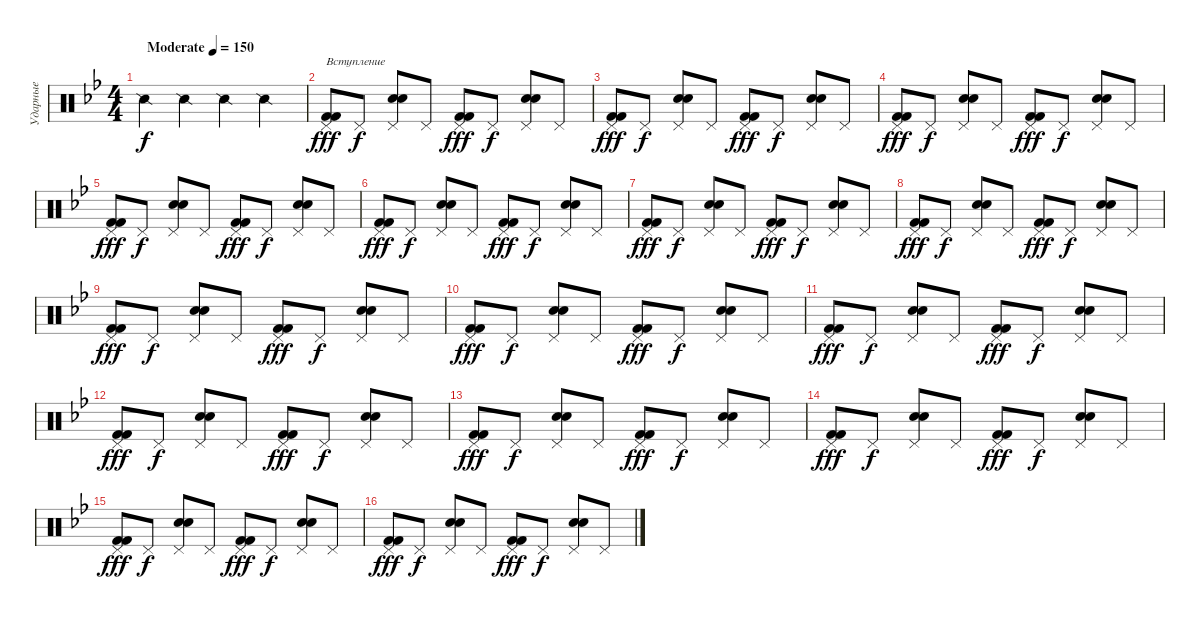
\track ("Ударные" "Ударные") {instrument percussion}
\staff {score}
\articulation defaults
\ts (4 4)
\tempo (150 "Moderate")
\clef neutral
\ks gminor "Snare (side stick) 2".4{dy f} "Snare (side stick) 2".4 "Snare (side stick) 2".4 "Snare (side stick) 2".4
|
("Kick (hit) 2" "Kick (hit) 2" "Pedal Hi-Hat (hit)").8{txt "Вступление" dy fff} "Pedal Hi-Hat (hit)".8{dy f} ("Electric Snare (hit)" "Electric Snare (hit)" "Pedal Hi-Hat (hit)").8 "Pedal Hi-Hat (hit)".8 ("Kick (hit) 2" "Kick (hit) 2" "Pedal Hi-Hat (hit)").8{dy fff} "Pedal Hi-Hat (hit)".8{dy f} ("Electric Snare (hit)" "Electric Snare (hit)" "Pedal Hi-Hat (hit)").8 "Pedal Hi-Hat (hit)".8 |
("Kick (hit) 2" "Kick (hit) 2" "Pedal Hi-Hat (hit)").8{dy fff} "Pedal Hi-Hat (hit)".8{dy f} ("Electric Snare (hit)" "Electric Snare (hit)" "Pedal Hi-Hat (hit)").8 "Pedal Hi-Hat (hit)".8 ("Kick (hit) 2" "Kick (hit) 2" "Pedal Hi-Hat (hit)").8{dy fff} "Pedal Hi-Hat (hit)".8{dy f} ("Electric Snare (hit)" "Electric Snare (hit)" "Pedal Hi-Hat (hit)").8 "Pedal Hi-Hat (hit)".8 |
("Kick (hit) 2" "Kick (hit) 2" "Pedal Hi-Hat (hit)").8{dy fff} "Pedal Hi-Hat (hit)".8{dy f} ("Electric Snare (hit)" "Electric Snare (hit)" "Pedal Hi-Hat (hit)").8 "Pedal Hi-Hat (hit)".8 ("Kick (hit) 2" "Kick (hit) 2" "Pedal Hi-Hat (hit)").8{dy fff} "Pedal Hi-Hat (hit)".8{dy f} ("Electric Snare (hit)" "Electric Snare (hit)" "Pedal Hi-Hat (hit)").8 "Pedal Hi-Hat (hit)".8 |
("Kick (hit) 2" "Kick (hit) 2" "Pedal Hi-Hat (hit)").8{dy fff} "Pedal Hi-Hat (hit)".8{dy f} ("Electric Snare (hit)" "Electric Snare (hit)" "Pedal Hi-Hat (hit)").8 "Pedal Hi-Hat (hit)".8 ("Kick (hit) 2" "Kick (hit) 2" "Pedal Hi-Hat (hit)").8{dy fff} "Pedal Hi-Hat (hit)".8{dy f} ("Electric Snare (hit)" "Electric Snare (hit)" "Pedal Hi-Hat (hit)").8 "Pedal Hi-Hat (hit)".8 |
("Kick (hit) 2" "Kick (hit) 2" "Pedal Hi-Hat (hit)").8{dy fff} "Pedal Hi-Hat (hit)".8{dy f} ("Electric Snare (hit)" "Electric Snare (hit)" "Pedal Hi-Hat (hit)").8 "Pedal Hi-Hat (hit)".8 ("Kick (hit) 2" "Kick (hit) 2" "Pedal Hi-Hat (hit)").8{dy fff} "Pedal Hi-Hat (hit)".8{dy f} ("Electric Snare (hit)" "Electric Snare (hit)" "Pedal Hi-Hat (hit)").8 "Pedal Hi-Hat (hit)".8 |
("Kick (hit) 2" "Kick (hit) 2" "Pedal Hi-Hat (hit)").8{dy fff} "Pedal Hi-Hat (hit)".8{dy f} ("Electric Snare (hit)" "Electric Snare (hit)" "Pedal Hi-Hat (hit)").8 "Pedal Hi-Hat (hit)".8 ("Kick (hit) 2" "Kick (hit) 2" "Pedal Hi-Hat (hit)").8{dy fff} "Pedal Hi-Hat (hit)".8{dy f} ("Electric Snare (hit)" "Electric Snare (hit)" "Pedal Hi-Hat (hit)").8 "Pedal Hi-Hat (hit)".8 |
("Kick (hit) 2" "Kick (hit) 2" "Pedal Hi-Hat (hit)").8{dy fff} "Pedal Hi-Hat (hit)".8{dy f} ("Electric Snare (hit)" "Electric Snare (hit)" "Pedal Hi-Hat (hit)").8 "Pedal Hi-Hat (hit)".8 ("Kick (hit) 2" "Kick (hit) 2" "Pedal Hi-Hat (hit)").8{dy fff} "Pedal Hi-Hat (hit)".8{dy f} ("Electric Snare (hit)" "Electric Snare (hit)" "Pedal Hi-Hat (hit)").8 "Pedal Hi-Hat (hit)".8 |
("Kick (hit) 2" "Kick (hit) 2" "Pedal Hi-Hat (hit)").8{dy fff} "Pedal Hi-Hat (hit)".8{dy f} ("Electric Snare (hit)" "Electric Snare (hit)" "Pedal Hi-Hat (hit)").8 "Pedal Hi-Hat (hit)".8 ("Kick (hit) 2" "Kick (hit) 2" "Pedal Hi-Hat (hit)").8{dy fff} "Pedal Hi-Hat (hit)".8{dy f} ("Electric Snare (hit)" "Electric Snare (hit)" "Pedal Hi-Hat (hit)").8 "Pedal Hi-Hat (hit)".8 |
("Kick (hit) 2" "Kick (hit) 2" "Pedal Hi-Hat (hit)").8{dy fff} "Pedal Hi-Hat (hit)".8{dy f} ("Electric Snare (hit)" "Electric Snare (hit)" "Pedal Hi-Hat (hit)").8 "Pedal Hi-Hat (hit)".8 ("Kick (hit) 2" "Kick (hit) 2" "Pedal Hi-Hat (hit)").8{dy fff} "Pedal Hi-Hat (hit)".8{dy f} ("Electric Snare (hit)" "Electric Snare (hit)" "Pedal Hi-Hat (hit)").8 "Pedal Hi-Hat (hit)".8 |
("Kick (hit) 2" "Kick (hit) 2" "Pedal Hi-Hat (hit)").8{dy fff} "Pedal Hi-Hat (hit)".8{dy f} ("Electric Snare (hit)" "Electric Snare (hit)" "Pedal Hi-Hat (hit)").8 "Pedal Hi-Hat (hit)".8 ("Kick (hit) 2" "Kick (hit) 2" "Pedal Hi-Hat (hit)").8{dy fff} "Pedal Hi-Hat (hit)".8{dy f} ("Electric Snare (hit)" "Electric Snare (hit)" "Pedal Hi-Hat (hit)").8 "Pedal Hi-Hat (hit)".8 |
("Kick (hit) 2" "Kick (hit) 2" "Pedal Hi-Hat (hit)").8{dy fff} "Pedal Hi-Hat (hit)".8{dy f} ("Electric Snare (hit)" "Electric Snare (hit)" "Pedal Hi-Hat (hit)").8 "Pedal Hi-Hat (hit)".8 ("Kick (hit) 2" "Kick (hit) 2" "Pedal Hi-Hat (hit)").8{dy fff} "Pedal Hi-Hat (hit)".8{dy f} ("Electric Snare (hit)" "Electric Snare (hit)" "Pedal Hi-Hat (hit)").8 "Pedal Hi-Hat (hit)".8 |
("Kick (hit) 2" "Kick (hit) 2" "Pedal Hi-Hat (hit)").8{dy fff} "Pedal Hi-Hat (hit)".8{dy f} ("Electric Snare (hit)" "Electric Snare (hit)" "Pedal Hi-Hat (hit)").8 "Pedal Hi-Hat (hit)".8 ("Kick (hit) 2" "Kick (hit) 2" "Pedal Hi-Hat (hit)").8{dy fff} "Pedal Hi-Hat (hit)".8{dy f} ("Electric Snare (hit)" "Electric Snare (hit)" "Pedal Hi-Hat (hit)").8 "Pedal Hi-Hat (hit)".8 |
("Kick (hit) 2" "Kick (hit) 2" "Pedal Hi-Hat (hit)").8{dy fff} "Pedal Hi-Hat (hit)".8{dy f} ("Electric Snare (hit)" "Electric Snare (hit)" "Pedal Hi-Hat (hit)").8 "Pedal Hi-Hat (hit)".8 ("Kick (hit) 2" "Kick (hit) 2" "Pedal Hi-Hat (hit)").8{dy fff} "Pedal Hi-Hat (hit)".8{dy f} ("Electric Snare (hit)" "Electric Snare (hit)" "Pedal Hi-Hat (hit)").8 "Pedal Hi-Hat (hit)".8 |
("Kick (hit) 2" "Kick (hit) 2" "Pedal Hi-Hat (hit)").8{dy fff} "Pedal Hi-Hat (hit)".8{dy f} ("Electric Snare (hit)" "Electric Snare (hit)" "Pedal Hi-Hat (hit)").8 "Pedal Hi-Hat (hit)".8 ("Kick (hit) 2" "Kick (hit) 2" "Pedal Hi-Hat (hit)").8{dy fff} "Pedal Hi-Hat (hit)".8{dy f} ("Electric Snare (hit)" "Electric Snare (hit)" "Pedal Hi-Hat (hit)").8 "Pedal Hi-Hat (hit)".8 |
("Kick (hit) 2" "Kick (hit) 2" "Pedal Hi-Hat (hit)").8{dy fff} "Pedal Hi-Hat (hit)".8{dy f} ("Electric Snare (hit)" "Electric Snare (hit)" "Pedal Hi-Hat (hit)").8 "Pedal Hi-Hat (hit)".8 ("Kick (hit) 2" "Kick (hit) 2" "Pedal Hi-Hat (hit)").8{dy fff} "Pedal Hi-Hat (hit)".8{dy f} ("Electric Snare (hit)" "Electric Snare (hit)" "Pedal Hi-Hat (hit)").8 "Pedal Hi-Hat (hit)".8
